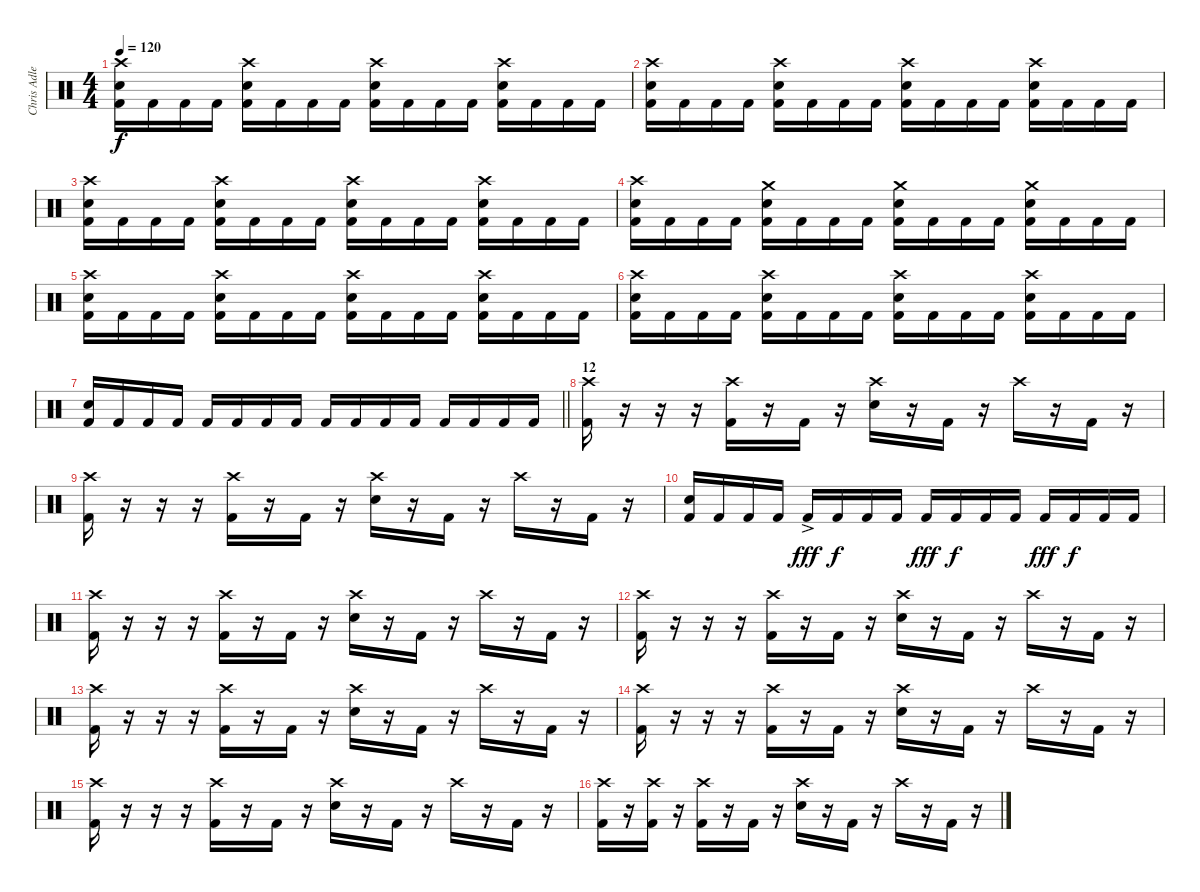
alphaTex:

\track ("Chris Adler" "Chris Adle") {instrument percussion}
\staff {score}
\articulation defaults
\ts (4 4)
\tempo 120
\clef neutral
\ks c
("Crash high (hit)" "Electric Snare (hit)" "Kick (hit) 2").16{dy f} "Kick (hit) 2".16 "Kick (hit) 2".16 "Kick (hit) 2".16 ("Crash high (hit)" "Electric Snare (hit)" "Kick (hit) 2").16 "Kick (hit) 2".16 "Kick (hit) 2".16 "Kick (hit) 2".16 ("Crash high (hit)" "Electric Snare (hit)" "Kick (hit) 2").16 "Kick (hit) 2".16 "Kick (hit) 2".16 "Kick (hit) 2".16 ("Crash high (hit)" "Electric Snare (hit)" "Kick (hit) 2").16 "Kick (hit) 2".16 "Kick (hit) 2".16 "Kick (hit) 2".16 |
("Crash high (hit)" "Electric Snare (hit)" "Kick (hit) 2").16 "Kick (hit) 2".16 "Kick (hit) 2".16 "Kick (hit) 2".16 ("Crash high (hit)" "Electric Snare (hit)" "Kick (hit) 2").16 "Kick (hit) 2".16 "Kick (hit) 2".16 "Kick (hit) 2".16 ("Crash high (hit)" "Electric Snare (hit)" "Kick (hit) 2").16 "Kick (hit) 2".16 "Kick (hit) 2".16 "Kick (hit) 2".16 ("Crash high (hit)" "Electric Snare (hit)" "Kick (hit) 2").16 "Kick (hit) 2".16 "Kick (hit) 2".16 "Kick (hit) 2".16 |
("Crash high (hit)" "Electric Snare (hit)" "Kick (hit) 2").16 "Kick (hit) 2".16 "Kick (hit) 2".16 "Kick (hit) 2".16 ("Crash high (hit)" "Electric Snare (hit)" "Kick (hit) 2").16 "Kick (hit) 2".16 "Kick (hit) 2".16 "Kick (hit) 2".16 ("Crash high (hit)" "Electric Snare (hit)" "Kick (hit) 2").16 "Kick (hit) 2".16 "Kick (hit) 2".16 "Kick (hit) 2".16 ("Crash high (hit)" "Electric Snare (hit)" "Kick (hit) 2").16 "Kick (hit) 2".16 "Kick (hit) 2".16 "Kick (hit) 2".16 |
("Crash high (hit)" "Electric Snare (hit)" "Kick (hit) 2").16 "Kick (hit) 2".16 "Kick (hit) 2".16 "Kick (hit) 2".16 ("Crash medium (hit)" "Electric Snare (hit)" "Kick (hit) 2").16 "Kick (hit) 2".16 "Kick (hit) 2".16 "Kick (hit) 2".16 ("Crash medium (hit)" "Electric Snare (hit)" "Kick (hit) 2").16 "Kick (hit) 2".16 "Kick (hit) 2".16 "Kick (hit) 2".16 ("Crash medium (hit)" "Electric Snare (hit)" "Kick (hit) 2").16 "Kick (hit) 2".16 "Kick (hit) 2".16 "Kick (hit) 2".16 |
("Crash high (hit)" "Electric Snare (hit)" "Kick (hit) 2").16 "Kick (hit) 2".16 "Kick (hit) 2".16 "Kick (hit) 2".16 ("Crash high (hit)" "Electric Snare (hit)" "Kick (hit) 2").16 "Kick (hit) 2".16 "Kick (hit) 2".16 "Kick (hit) 2".16 ("Crash high (hit)" "Electric Snare (hit)" "Kick (hit) 2").16 "Kick (hit) 2".16 "Kick (hit) 2".16 "Kick (hit) 2".16 ("Crash high (hit)" "Electric Snare (hit)" "Kick (hit) 2").16 "Kick (hit) 2".16 "Kick (hit) 2".16 "Kick (hit) 2".16 |
("Crash high (hit)" "Electric Snare (hit)" "Kick (hit) 2").16 "Kick (hit) 2".16 "Kick (hit) 2".16 "Kick (hit) 2".16 ("Crash high (hit)" "Electric Snare (hit)" "Kick (hit) 2").16 "Kick (hit) 2".16 "Kick (hit) 2".16 "Kick (hit) 2".16 ("Crash high (hit)" "Electric Snare (hit)" "Kick (hit) 2").16 "Kick (hit) 2".16 "Kick (hit) 2".16 "Kick (hit) 2".16 ("Crash high (hit)" "Electric Snare (hit)" "Kick (hit) 2").16 "Kick (hit) 2".16 "Kick (hit) 2".16 "Kick (hit) 2".16 |
\barLineRight lightlight
("Electric Snare (hit)" "Kick (hit) 2").16 "Kick (hit) 2".16 "Kick (hit) 2".16 "Kick (hit) 2".16 "Kick (hit) 2".16 "Kick (hit) 2".16 "Kick (hit) 2".16 "Kick (hit) 2".16 "Kick (hit) 2".16 "Kick (hit) 2".16 "Kick (hit) 2".16 "Kick (hit) 2".16 "Kick (hit) 2".16 "Kick (hit) 2".16 "Kick (hit) 2".16 "Kick (hit) 2".16 |
\section ("" "12")
("Crash high (hit)" "Kick (hit) 2").16 r.16 r.16 r.16 ("Crash high (hit)" "Kick (hit) 2").16 r.16 "Kick (hit) 2".16 r.16 ("Crash high (hit)" "Electric Snare (hit)").16 r.16 "Kick (hit) 2".16 r.16 "Crash high (hit)".16 r.16 "Kick (hit) 2".16 r.16 |
("Crash high (hit)" "Kick (hit) 2").16 r.16 r.16 r.16 ("Crash high (hit)" "Kick (hit) 2").16 r.16 "Kick (hit) 2".16 r.16 ("Crash high (hit)" "Electric Snare (hit)").16 r.16 "Kick (hit) 2".16 r.16 "Crash high (hit)".16 r.16 "Kick (hit) 2".16 r.16 |
("Electric Snare (hit)" "Kick (hit) 2").16 "Kick (hit) 2".16 "Kick (hit) 2".16 "Kick (hit) 2".16 "Kick (hit) 2"{ac}.16{dy fff} "Kick (hit) 2".16{dy f} "Kick (hit) 2".16 "Kick (hit) 2".16 "Kick (hit) 2".16{dy fff} "Kick (hit) 2".16{dy f} "Kick (hit) 2".16 "Kick (hit) 2".16 "Kick (hit) 2".16{dy fff} "Kick (hit) 2".16{dy f} "Kick (hit) 2".16 "Kick (hit) 2".16 |
("Crash high (hit)" "Kick (hit) 2").16 r.16 r.16 r.16 ("Crash high (hit)" "Kick (hit) 2").16 r.16 "Kick (hit) 2".16 r.16 ("Crash high (hit)" "Electric Snare (hit)").16 r.16 "Kick (hit) 2".16 r.16 "Crash high (hit)".16 r.16 "Kick (hit) 2".16 r.16 |
("Crash high (hit)" "Kick (hit) 2").16 r.16 r.16 r.16 ("Crash high (hit)" "Kick (hit) 2").16 r.16 "Kick (hit) 2".16 r.16 ("Crash high (hit)" "Electric Snare (hit)").16 r.16 "Kick (hit) 2".16 r.16 "Crash high (hit)".16 r.16 "Kick (hit) 2".16 r.16 |
("Crash high (hit)" "Kick (hit) 2").16 r.16 r.16 r.16 ("Crash high (hit)" "Kick (hit) 2").16 r.16 "Kick (hit) 2".16 r.16 ("Crash high (hit)" "Electric Snare (hit)").16 r.16 "Kick (hit) 2".16 r.16 "Crash high (hit)".16 r.16 "Kick (hit) 2".16 r.16 |
("Crash high (hit)" "Kick (hit) 2").16 r.16 r.16 r.16 ("Crash high (hit)" "Kick (hit) 2").16 r.16 "Kick (hit) 2".16 r.16 ("Crash high (hit)" "Electric Snare (hit)").16 r.16 "Kick (hit) 2".16 r.16 "Crash high (hit)".16 r.16 "Kick (hit) 2".16 r.16 |
("Crash high (hit)" "Kick (hit) 2").16 r.16 r.16 r.16 ("Crash high (hit)" "Kick (hit) 2").16 r.16 "Kick (hit) 2".16 r.16 ("Crash high (hit)" "Electric Snare (hit)").16 r.16 "Kick (hit) 2".16 r.16 "Crash high (hit)".16 r.16 "Kick (hit) 2".16 r.16 |
("Crash high (hit)" "Kick (hit) 2").16 r.16 ("Crash high (hit)" "Kick (hit) 2").16 r.16 ("Crash high (hit)" "Kick (hit) 2").16 r.16 "Kick (hit) 2".16 r.16 ("Crash high (hit)" "Electric Snare (hit)").16 r.16 "Kick (hit) 2".16 r.16 "Crash high (hit)".16 r.16 "Kick (hit) 2".16 r.16
